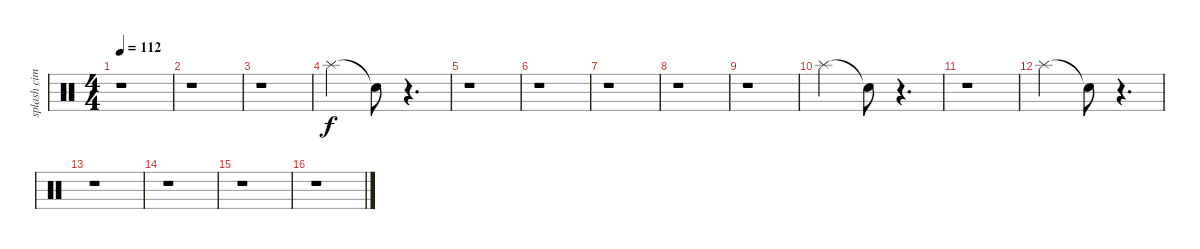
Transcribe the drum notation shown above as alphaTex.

\track ("splash cimbal" "splash cim") {instrument percussion}
\staff {score}
\articulation defaults
\ts (4 4)
\tempo 112
\clef neutral
\ks c
r.1{dy f} |
r.1 |
r.1 |
"Splash (hit)".2 "Snare (hit)"{t}.8 r.4{d} |
r.1 |
r.1 |
r.1 |
r.1 |
r.1 |
"Splash (hit)".2 "Snare (hit)"{t}.8 r.4{d} |
r.1 |
"Splash (hit)".2 "Snare (hit)"{t}.8 r.4{d} |
r.1 |
r.1 |
r.1 |
r.1
